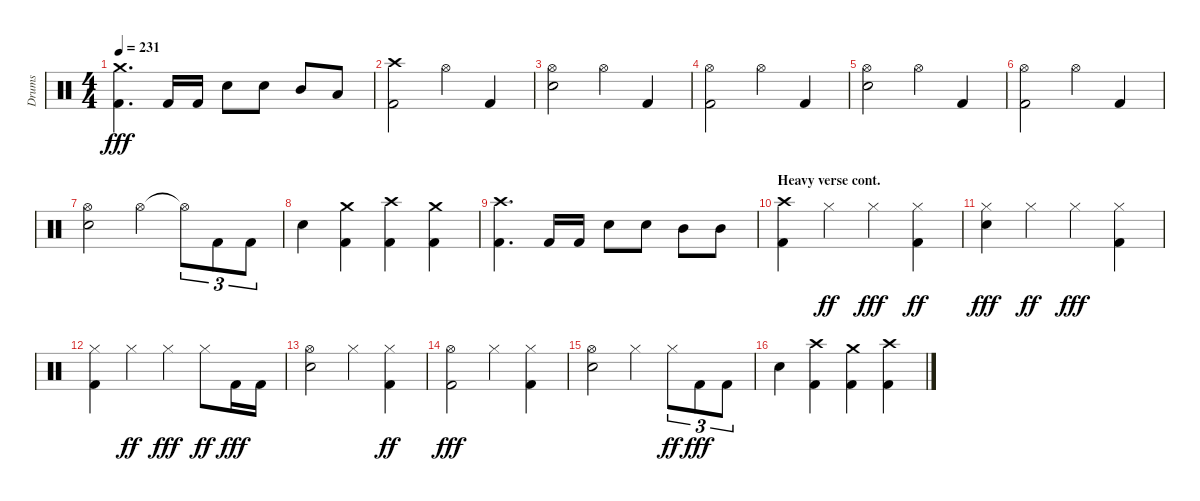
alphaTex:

\track ("Drums" "Drums") {instrument percussion}
\staff {score}
\articulation defaults
\ts (4 4)
\tempo 231
\clef neutral
\ks aminor
("Kick (hit) 2" "Crash medium (hit)").4{d dy fff} "Kick (hit) 2".16 "Kick (hit) 2".16 "Snare (hit) 2".8 "Snare (hit) 2".8 "Mid Tom (hit)".8 "Low Tom (hit)".8 |
("Crash high (hit)" "Kick (hit) 2").2 "Hi-Hat (open)".4 "Kick (hit) 2".4 |
("Snare (hit) 2" "Hi-Hat (open)").2 "Hi-Hat (open)".4 "Kick (hit) 2".4 |
("Kick (hit) 2" "Hi-Hat (open)").2 "Hi-Hat (open)".4 "Kick (hit) 2".4 |
("Snare (hit) 2" "Hi-Hat (open)").2 "Hi-Hat (open)".4 "Kick (hit) 2".4 |
("Kick (hit) 2" "Hi-Hat (open)").2 "Hi-Hat (open)".4 "Kick (hit) 2".4 |
("Hi-Hat (open)" "Snare (hit) 2").2 "Hi-Hat (open)".4 "Hi-Hat (open)"{t}.8{tu (3 2)} "Kick (hit) 2".8{tu (3 2)} "Kick (hit) 2".8{tu (3 2)} |
"Snare (hit) 2".4 ("Kick (hit) 2" "Crash medium (hit)").4 ("Kick (hit) 2" "Crash high (hit)").4 ("Kick (hit) 2" "Crash medium (hit)").4 |
("Kick (hit) 2" "Crash high (hit)").4{d} "Kick (hit) 2".16 "Kick (hit) 2".16 "Snare (hit) 2".8 "Snare (hit) 2".8 "Mid Tom (hit)".8 "Mid Tom (hit)".8 |
\section ("" "Heavy verse cont.")
("Kick (hit) 2" "Crash high (hit)").4 "Hi-Hat (closed)".4{dy ff} "Hi-Hat (closed)".4{dy fff} ("Hi-Hat (closed)" "Kick (hit) 2").4{dy ff} |
("Hi-Hat (closed)" "Snare (hit) 2").4{dy fff} "Hi-Hat (closed)".4{dy ff} "Hi-Hat (closed)".4{dy fff} ("Kick (hit) 2" "Hi-Hat (closed)").4 |
("Kick (hit) 2" "Hi-Hat (closed)").4 "Hi-Hat (closed)".4{dy ff} "Hi-Hat (closed)".4{dy fff} "Hi-Hat (closed)".8{dy ff} "Kick (hit) 2".16{dy fff} "Kick (hit) 2".16 |
("Snare (hit) 2" "Hi-Hat (open)").2 "Hi-Hat (closed)".4 ("Hi-Hat (closed)" "Kick (hit) 2").4{dy ff} |
("Hi-Hat (open)" "Kick (hit) 2").2{dy fff} "Hi-Hat (closed)".4 ("Kick (hit) 2" "Hi-Hat (closed)").4 |
("Snare (hit) 2" "Hi-Hat (open)").2 "Hi-Hat (closed)".4 "Hi-Hat (closed)".8{tu (3 2) dy ff} "Kick (hit) 2".8{tu (3 2) dy fff} "Kick (hit) 2".8{tu (3 2)} |
"Snare (hit) 2".4 ("Kick (hit) 2" "Crash high (hit)").4 ("Crash medium (hit)" "Kick (hit) 2").4 ("Crash high (hit)" "Kick (hit) 2").4
